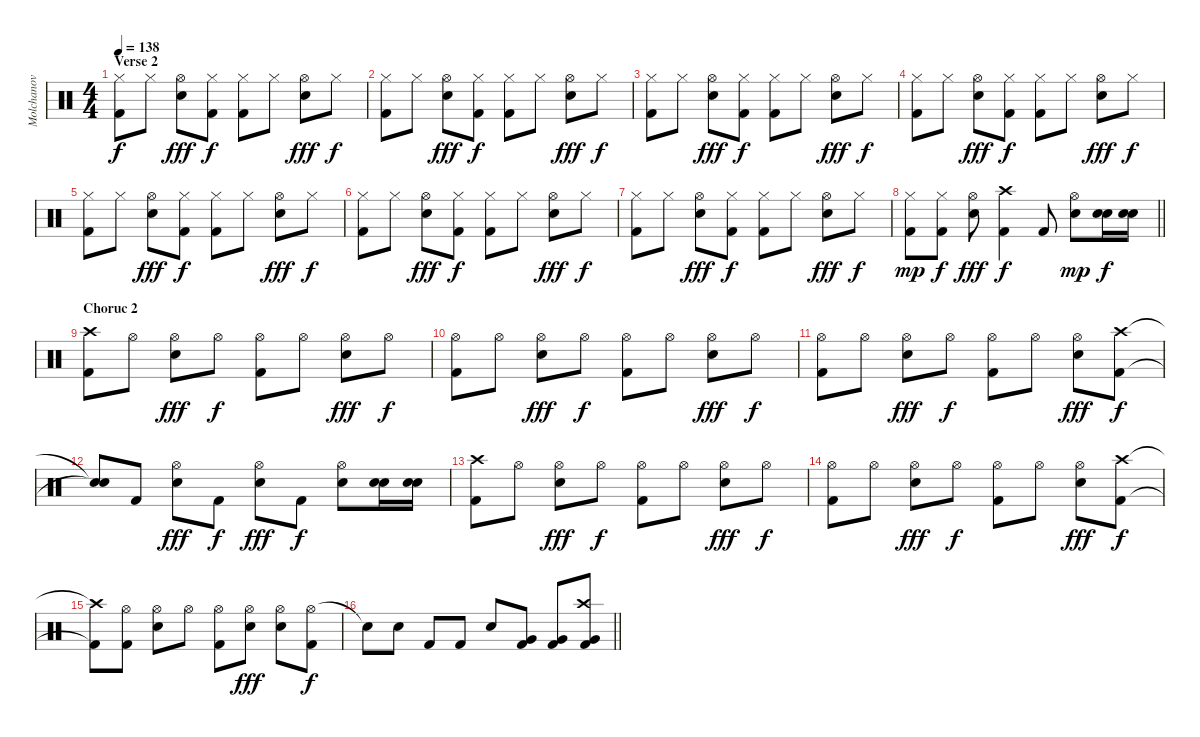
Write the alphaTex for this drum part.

\track ("Molchanov" "Molchanov") {instrument percussion}
\staff {score}
\articulation defaults
\ts (4 4)
\section ("" "Verse 2")
\tempo 138
\clef neutral
\ks c
("Hi-Hat (closed)" "Kick (hit) 2").8{dy f} "Hi-Hat (closed)".8 ("Hi-Hat (open)" "Electric Snare (hit)").8{dy fff} ("Hi-Hat (closed)" "Kick (hit) 2").8{dy f} ("Hi-Hat (closed)" "Kick (hit) 2").8 "Hi-Hat (closed)".8 ("Hi-Hat (open)" "Electric Snare (hit)").8{dy fff} "Hi-Hat (closed)".8{dy f} |
("Hi-Hat (closed)" "Kick (hit) 2").8 "Hi-Hat (closed)".8 ("Hi-Hat (open)" "Electric Snare (hit)").8{dy fff} ("Hi-Hat (closed)" "Kick (hit) 2").8{dy f} ("Hi-Hat (closed)" "Kick (hit) 2").8 "Hi-Hat (closed)".8 ("Hi-Hat (open)" "Electric Snare (hit)").8{dy fff} "Hi-Hat (closed)".8{dy f} |
("Hi-Hat (closed)" "Kick (hit) 2").8 "Hi-Hat (closed)".8 ("Hi-Hat (open)" "Electric Snare (hit)").8{dy fff} ("Hi-Hat (closed)" "Kick (hit) 2").8{dy f} ("Hi-Hat (closed)" "Kick (hit) 2").8 "Hi-Hat (closed)".8 ("Hi-Hat (open)" "Electric Snare (hit)").8{dy fff} "Hi-Hat (closed)".8{dy f} |
("Hi-Hat (closed)" "Kick (hit) 2").8 "Hi-Hat (closed)".8 ("Hi-Hat (open)" "Electric Snare (hit)").8{dy fff} ("Hi-Hat (closed)" "Kick (hit) 2").8{dy f} ("Hi-Hat (closed)" "Kick (hit) 2").8 "Hi-Hat (closed)".8 ("Hi-Hat (open)" "Electric Snare (hit)").8{dy fff} "Hi-Hat (closed)".8{dy f} |
("Hi-Hat (closed)" "Kick (hit) 2").8 "Hi-Hat (closed)".8 ("Hi-Hat (open)" "Electric Snare (hit)").8{dy fff} ("Hi-Hat (closed)" "Kick (hit) 2").8{dy f} ("Hi-Hat (closed)" "Kick (hit) 2").8 "Hi-Hat (closed)".8 ("Hi-Hat (open)" "Electric Snare (hit)").8{dy fff} "Hi-Hat (closed)".8{dy f} |
("Hi-Hat (closed)" "Kick (hit) 2").8 "Hi-Hat (closed)".8 ("Hi-Hat (open)" "Electric Snare (hit)").8{dy fff} ("Hi-Hat (closed)" "Kick (hit) 2").8{dy f} ("Hi-Hat (closed)" "Kick (hit) 2").8 "Hi-Hat (closed)".8 ("Hi-Hat (open)" "Electric Snare (hit)").8{dy fff} "Hi-Hat (closed)".8{dy f} |
("Hi-Hat (closed)" "Kick (hit) 2").8 "Hi-Hat (closed)".8 ("Hi-Hat (open)" "Electric Snare (hit)").8{dy fff} ("Hi-Hat (closed)" "Kick (hit) 2").8{dy f} ("Hi-Hat (closed)" "Kick (hit) 2").8 "Hi-Hat (closed)".8 ("Hi-Hat (open)" "Electric Snare (hit)").8{dy fff} "Hi-Hat (closed)".8{dy f} |
\barLineRight lightlight
("Hi-Hat (closed)" "Kick (hit) 2").8{dy mp} ("Hi-Hat (closed)" "Kick (hit) 2").8{dy f} ("Hi-Hat (open)" "Electric Snare (hit)").8{dy fff} ("Crash high (hit)" "Kick (hit) 2").4{dy f} "Kick (hit) 2".8 ("Hi-Hat (open)" "Electric Snare (hit)").8{dy mp} ("Electric Snare (hit)" "Electric Snare (hit)").16{dy f} ("Electric Snare (hit)" "Electric Snare (hit)").16 |
\section ("" "Choruc 2")
("Crash high (hit)" "Kick (hit) 2").8 "Hi-Hat (open)".8 ("Hi-Hat (open)" "Electric Snare (hit)").8{dy fff} "Hi-Hat (open)".8{dy f} ("Hi-Hat (open)" "Kick (hit) 2").8 "Hi-Hat (open)".8 ("Hi-Hat (open)" "Electric Snare (hit)").8{dy fff} "Hi-Hat (open)".8{dy f} |
("Hi-Hat (open)" "Kick (hit) 2").8 "Hi-Hat (open)".8 ("Hi-Hat (open)" "Electric Snare (hit)").8{dy fff} "Hi-Hat (open)".8{dy f} ("Hi-Hat (open)" "Kick (hit) 2").8 "Hi-Hat (open)".8 ("Hi-Hat (open)" "Electric Snare (hit)").8{dy fff} "Hi-Hat (open)".8{dy f} |
("Hi-Hat (open)" "Kick (hit) 2").8 "Hi-Hat (open)".8 ("Hi-Hat (open)" "Electric Snare (hit)").8{dy fff} "Hi-Hat (open)".8{dy f} ("Hi-Hat (open)" "Kick (hit) 2").8 "Hi-Hat (open)".8 ("Hi-Hat (open)" "Electric Snare (hit)").8{dy fff} ("Crash high (hit)" "Kick (hit) 2").8{dy f} |
("Snare (hit)"{t} "Snare (hit)"{t}).8 "Kick (hit) 2".8 ("Hi-Hat (open)" "Electric Snare (hit)").8{dy fff} "Kick (hit) 2".8{dy f} ("Hi-Hat (open)" "Electric Snare (hit)").8{dy fff} "Kick (hit) 2".8{dy f} ("Hi-Hat (open)" "Electric Snare (hit)").8 ("Electric Snare (hit)" "Electric Snare (hit)").16 ("Electric Snare (hit)" "Electric Snare (hit)").16 |
("Crash high (hit)" "Kick (hit) 2").8 "Hi-Hat (open)".8 ("Hi-Hat (open)" "Electric Snare (hit)").8{dy fff} "Hi-Hat (open)".8{dy f} ("Hi-Hat (open)" "Kick (hit) 2").8 "Hi-Hat (open)".8 ("Hi-Hat (open)" "Electric Snare (hit)").8{dy fff} "Hi-Hat (open)".8{dy f} |
("Hi-Hat (open)" "Kick (hit) 2").8 "Hi-Hat (open)".8 ("Hi-Hat (open)" "Electric Snare (hit)").8{dy fff} "Hi-Hat (open)".8{dy f} ("Hi-Hat (open)" "Kick (hit) 2").8 "Hi-Hat (open)".8 ("Hi-Hat (open)" "Electric Snare (hit)").8{dy fff} ("Crash high (hit)" "Kick (hit) 2").8{dy f} |
("Crash high (hit)"{t} "Kick (hit) 2"{t}).8 ("Hi-Hat (open)" "Kick (hit) 2").8 ("Hi-Hat (open)" "Electric Snare (hit)").8 "Hi-Hat (open)".8 ("Hi-Hat (open)" "Kick (hit) 2").8 ("Hi-Hat (open)" "Electric Snare (hit)").8{dy fff} ("Hi-Hat (open)" "Electric Snare (hit)").8 ("Hi-Hat (open)" "Kick (hit) 2").8{dy f} |
\barLineRight lightlight "Snare (hit)"{t}.8 "Electric Snare (hit)".8 "Kick (hit) 2".8 "Kick (hit) 2".8 "Electric Snare (hit)".8
("Very Low Tom (hit)" "Kick (hit) 2").8 ("Very Low Tom (hit)" "Kick (hit) 2").8 ("Crash high (hit)" "Very Low Tom (hit)" "Kick (hit) 2").8
